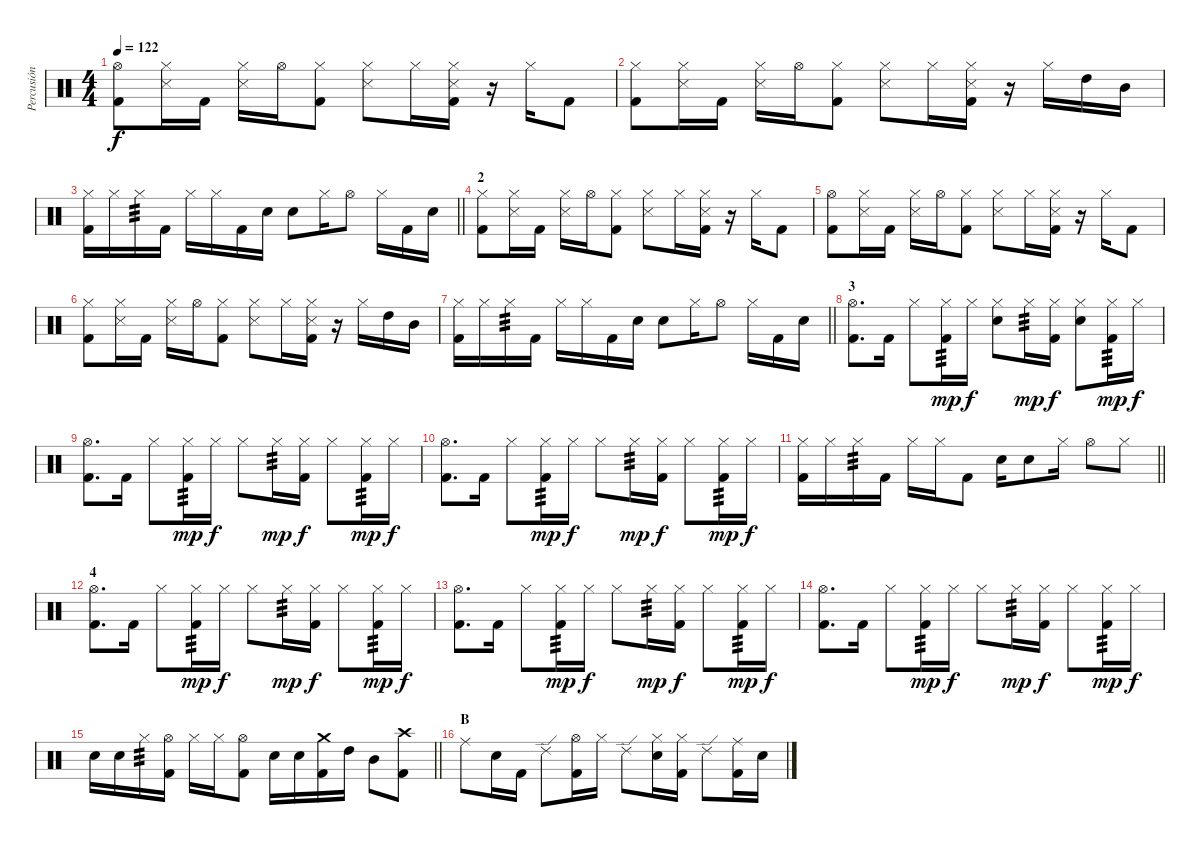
\track ("Percusión" "Percusión") {instrument percussion}
\staff {score}
\articulation defaults
\ts (4 4)
\tempo 122
\clef neutral
\ks c
("Hi-Hat (open)" "Kick (hit) 2").8{dy f} ("Hi-Hat (closed)" "Snare (side stick) 3").16 "Kick (hit) 2".16 ("Hi-Hat (closed)" "Snare (side stick) 3").16 "Hi-Hat (open)".16 ("Hi-Hat (closed)" "Kick (hit) 2").8 ("Hi-Hat (closed)" "Snare (side stick) 3").8 "Hi-Hat (closed)".16 ("Snare (side stick) 3" "Hi-Hat (closed)" "Kick (hit) 2").16 r.16 "Hi-Hat (closed)".16 "Kick (hit) 2".8 |
("Hi-Hat (closed)" "Kick (hit) 2").8 ("Hi-Hat (closed)" "Snare (side stick) 3").16 "Kick (hit) 2".16 ("Hi-Hat (closed)" "Snare (side stick) 3").16 "Hi-Hat (open)".16 ("Hi-Hat (closed)" "Kick (hit) 2").8 ("Hi-Hat (closed)" "Snare (side stick) 3").8 "Hi-Hat (closed)".16 ("Snare (side stick) 3" "Hi-Hat (closed)" "Kick (hit) 2").16 r.16 "Hi-Hat (closed)".16 "High Tom (hit)".16 "Mid Tom (hit)".16 |
\barLineRight lightlight
("Hi-Hat (closed)" "Kick (hit) 2").16 "Hi-Hat (closed)".16 "Hi-Hat (closed)".16{tp 3} "Kick (hit) 2".16 "Hi-Hat (closed)".16 "Hi-Hat (closed)".16 "Kick (hit) 2".16 "Electric Snare (hit)".16 "Electric Snare (hit)".8 "Hi-Hat (closed)".16 "Hi-Hat (open)".8 "Hi-Hat (closed)".16 "Kick (hit) 2".16 "Electric Snare (hit)".16 |
\section ("" "2")
("Hi-Hat (closed)" "Kick (hit) 2").8 ("Hi-Hat (closed)" "Snare (side stick) 3").16 "Kick (hit) 2".16 ("Hi-Hat (closed)" "Snare (side stick) 3").16 "Hi-Hat (open)".16 ("Hi-Hat (closed)" "Kick (hit) 2").8 ("Hi-Hat (closed)" "Snare (side stick) 3").8 "Hi-Hat (closed)".16 ("Snare (side stick) 3" "Hi-Hat (closed)" "Kick (hit) 2").16 r.16 "Hi-Hat (closed)".16 "Kick (hit) 2".8 |
("Hi-Hat (open)" "Kick (hit) 2").8 ("Hi-Hat (closed)" "Snare (side stick) 3").16 "Kick (hit) 2".16 ("Hi-Hat (closed)" "Snare (side stick) 3").16 "Hi-Hat (open)".16 ("Hi-Hat (closed)" "Kick (hit) 2").8 ("Hi-Hat (closed)" "Snare (side stick) 3").8 "Hi-Hat (closed)".16 ("Snare (side stick) 3" "Hi-Hat (closed)" "Kick (hit) 2").16 r.16 "Hi-Hat (closed)".16 "Kick (hit) 2".8 |
("Hi-Hat (closed)" "Kick (hit) 2").8 ("Hi-Hat (closed)" "Snare (side stick) 3").16 "Kick (hit) 2".16 ("Hi-Hat (closed)" "Snare (side stick) 3").16 "Hi-Hat (open)".16 ("Hi-Hat (closed)" "Kick (hit) 2").8 ("Hi-Hat (closed)" "Snare (side stick) 3").8 "Hi-Hat (closed)".16 ("Snare (side stick) 3" "Hi-Hat (closed)" "Kick (hit) 2").16 r.16 "Hi-Hat (closed)".16 "High Tom (hit)".16 "Mid Tom (hit)".16 |
\barLineRight lightlight
("Hi-Hat (closed)" "Kick (hit) 2").16 "Hi-Hat (closed)".16 "Hi-Hat (closed)".16{tp 3} "Kick (hit) 2".16 "Hi-Hat (closed)".16 "Hi-Hat (closed)".16 "Kick (hit) 2".16 "Electric Snare (hit)".16 "Electric Snare (hit)".8 "Hi-Hat (closed)".16 "Hi-Hat (open)".8 "Hi-Hat (closed)".16 "Kick (hit) 2".16 "Electric Snare (hit)".16 |
\section ("" "3")
("Hi-Hat (open)" "Kick (hit) 2").8{d} "Kick (hit) 2".16 "Hi-Hat (closed)".8 ("Kick (hit) 2" "Hi-Hat (closed)").16{tp 3 dy mp} "Hi-Hat (closed)".16{dy f} ("Electric Snare (hit)" "Hi-Hat (closed)").8 "Hi-Hat (closed)".16{tp 3 dy mp} ("Kick (hit) 2" "Hi-Hat (closed)").16{dy f} ("Electric Snare (hit)" "Hi-Hat (closed)").8 ("Kick (hit) 2" "Hi-Hat (closed)").16{tp 3 dy mp} "Hi-Hat (closed)".16{dy f} |
("Hi-Hat (open)" "Kick (hit) 2").8{d} "Kick (hit) 2".16 "Hi-Hat (closed)".8 ("Kick (hit) 2" "Hi-Hat (closed)").16{tp 3 dy mp} "Hi-Hat (closed)".16{dy f} "Hi-Hat (closed)".8 "Hi-Hat (closed)".16{tp 3 dy mp} ("Kick (hit) 2" "Hi-Hat (closed)").16{dy f} "Hi-Hat (closed)".8 ("Kick (hit) 2" "Hi-Hat (closed)").16{tp 3 dy mp} "Hi-Hat (closed)".16{dy f} |
("Hi-Hat (open)" "Kick (hit) 2").8{d} "Kick (hit) 2".16 "Hi-Hat (closed)".8 ("Kick (hit) 2" "Hi-Hat (closed)").16{tp 3 dy mp} "Hi-Hat (closed)".16{dy f} "Hi-Hat (closed)".8 "Hi-Hat (closed)".16{tp 3 dy mp} ("Kick (hit) 2" "Hi-Hat (closed)").16{dy f} "Hi-Hat (closed)".8 ("Kick (hit) 2" "Hi-Hat (closed)").16{tp 3 dy mp} "Hi-Hat (closed)".16{dy f} |
\barLineRight lightlight
("Hi-Hat (closed)" "Kick (hit) 2").16 "Hi-Hat (closed)".16 "Hi-Hat (closed)".16{tp 3} "Kick (hit) 2".16 "Hi-Hat (closed)".16 "Hi-Hat (closed)".16 "Kick (hit) 2".8 "Electric Snare (hit)".16 "Electric Snare (hit)".8 "Hi-Hat (closed)".16 "Hi-Hat (open)".8 "Hi-Hat (closed)".8 |
\section ("" "4")
("Hi-Hat (open)" "Kick (hit) 2").8{d} "Kick (hit) 2".16 "Hi-Hat (closed)".8 ("Kick (hit) 2" "Hi-Hat (closed)").16{tp 3 dy mp} "Hi-Hat (closed)".16{dy f} "Hi-Hat (closed)".8 "Hi-Hat (closed)".16{tp 3 dy mp} ("Kick (hit) 2" "Hi-Hat (closed)").16{dy f} "Hi-Hat (closed)".8 ("Kick (hit) 2" "Hi-Hat (closed)").16{tp 3 dy mp} "Hi-Hat (closed)".16{dy f} |
("Hi-Hat (open)" "Kick (hit) 2").8{d} "Kick (hit) 2".16 "Hi-Hat (closed)".8 ("Kick (hit) 2" "Hi-Hat (closed)").16{tp 3 dy mp} "Hi-Hat (closed)".16{dy f} "Hi-Hat (closed)".8 "Hi-Hat (closed)".16{tp 3 dy mp} ("Kick (hit) 2" "Hi-Hat (closed)").16{dy f} "Hi-Hat (closed)".8 ("Kick (hit) 2" "Hi-Hat (closed)").16{tp 3 dy mp} "Hi-Hat (closed)".16{dy f} |
("Hi-Hat (open)" "Kick (hit) 2").8{d} "Kick (hit) 2".16 "Hi-Hat (closed)".8 ("Kick (hit) 2" "Hi-Hat (closed)").16{tp 3 dy mp} "Hi-Hat (closed)".16{dy f} "Hi-Hat (closed)".8 "Hi-Hat (closed)".16{tp 3 dy mp} ("Kick (hit) 2" "Hi-Hat (closed)").16{dy f} "Hi-Hat (closed)".8 ("Kick (hit) 2" "Hi-Hat (closed)").16{tp 3 dy mp} "Hi-Hat (closed)".16{dy f} |
\barLineRight lightlight "Electric Snare (hit)".16 "Electric Snare (hit)".16 "Hi-Hat (closed)".16{tp 3}
("Hi-Hat (open)" "Kick (hit) 2").16 "Hi-Hat (closed)".16 "Hi-Hat (closed)".16 ("Hi-Hat (open)" "Kick (hit) 2").8 "Electric Snare (hit)".16 "Electric Snare (hit)".16 ("Crash medium (hit)" "Kick (hit) 2").16 "High Tom (hit)".16 "Mid Tom (hit)".8 ("Crash high (hit)" "Kick (hit) 2").8 |
\section ("" "B")
"Ride (middle)".8 "Electric Snare (hit)".16 "Kick (hit) 2".16 "Ride (edge) 2".8 ("Hi-Hat (open)" "Kick (hit) 2").16 "Hi-Hat (closed)".16 "Ride (edge) 2".8 ("Electric Snare (hit)" "Hi-Hat (closed)").16 ("Kick (hit) 2" "Hi-Hat (closed)").16 "Ride (edge) 2".8 ("Ride (middle)" "Kick (hit) 2").16 "Electric Snare (hit)".16
